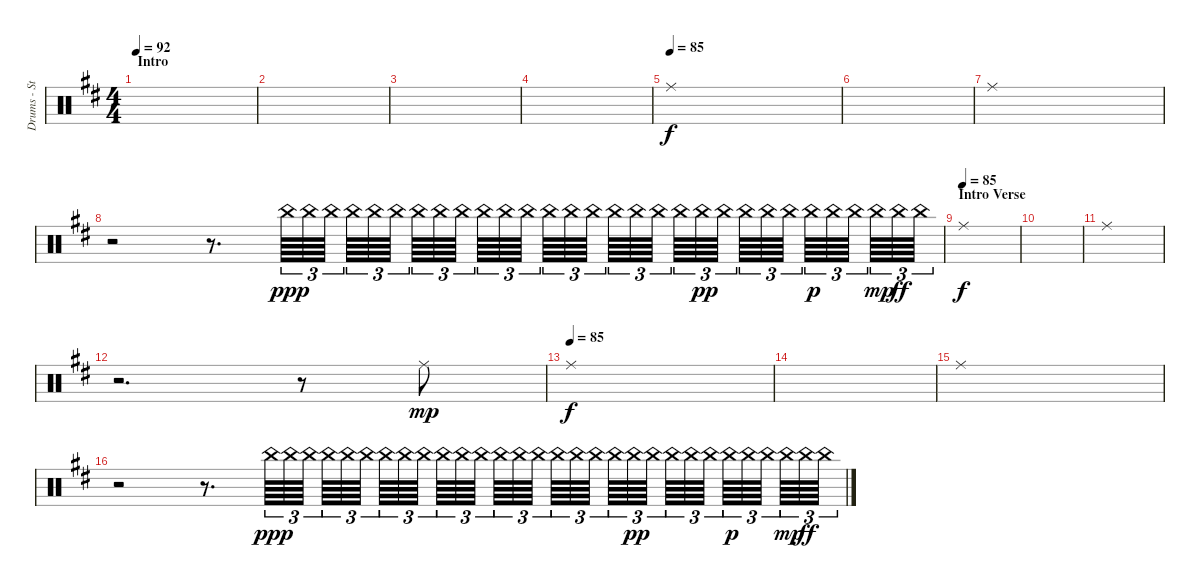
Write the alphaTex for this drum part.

\track ("Drums - Steve Wacholz" "Drums - St") {instrument percussion}
\staff {score}
\articulation defaults
\ts (4 4)
\section ("" "Intro")
\tempo 92
\tempo 85
\tempo 92
\clef neutral
\ks d
|
|
|
|
\tempo (85)
"Ride (middle)".1 |
|
"Ride (middle)".1 |
r.2 r.8{d} "China (hit)".64{tu (3 2) dy ppp} "China (hit)".64{tu (3 2)} "China (hit)".64{tu (3 2)} "China (hit)".64{tu (3 2)} "China (hit)".64{tu (3 2)} "China (hit)".64{tu (3 2)} "China (hit)".64{tu (3 2)} "China (hit)".64{tu (3 2)} "China (hit)".64{tu (3 2)} "China (hit)".64{tu (3 2)} "China (hit)".64{tu (3 2)} "China (hit)".64{tu (3 2)} "China (hit)".64{tu (3 2)} "China (hit)".64{tu (3 2)} "China (hit)".64{tu (3 2)} "China (hit)".64{tu (3 2)} "China (hit)".64{tu (3 2)} "China (hit)".64{tu (3 2)} "China (hit)".64{tu (3 2)} "China (hit)".64{tu (3 2) dy pp} "China (hit)".64{tu (3 2)} "China (hit)".64{tu (3 2)} "China (hit)".64{tu (3 2)} "China (hit)".64{tu (3 2)} "China (hit)".64{tu (3 2) dy p} "China (hit)".64{tu (3 2)} "China (hit)".64{tu (3 2)} "China (hit)".64{tu (3 2) dy mp} "China (hit)".64{tu (3 2) dy ff} "China (hit)".64{tu (3 2)} |
\section ("" "Intro Verse")
\tempo (85)
"Ride (middle)".1{dy f} |
|
"Ride (middle)".1 |
r.2{d} r.8 "Ride (middle)".8{dy mp} |
\tempo (85)
"Ride (middle)".1{dy f} |
|
"Ride (middle)".1 |
r.2 r.8{d} "China (hit)".64{tu (3 2) dy ppp} "China (hit)".64{tu (3 2)} "China (hit)".64{tu (3 2)} "China (hit)".64{tu (3 2)} "China (hit)".64{tu (3 2)} "China (hit)".64{tu (3 2)} "China (hit)".64{tu (3 2)} "China (hit)".64{tu (3 2)} "China (hit)".64{tu (3 2)} "China (hit)".64{tu (3 2)} "China (hit)".64{tu (3 2)} "China (hit)".64{tu (3 2)} "China (hit)".64{tu (3 2)} "China (hit)".64{tu (3 2)} "China (hit)".64{tu (3 2)} "China (hit)".64{tu (3 2)} "China (hit)".64{tu (3 2)} "China (hit)".64{tu (3 2)} "China (hit)".64{tu (3 2)} "China (hit)".64{tu (3 2) dy pp} "China (hit)".64{tu (3 2)} "China (hit)".64{tu (3 2)} "China (hit)".64{tu (3 2)} "China (hit)".64{tu (3 2)} "China (hit)".64{tu (3 2) dy p} "China (hit)".64{tu (3 2)} "China (hit)".64{tu (3 2)} "China (hit)".64{tu (3 2) dy mp} "China (hit)".64{tu (3 2) dy ff} "China (hit)".64{tu (3 2)}
